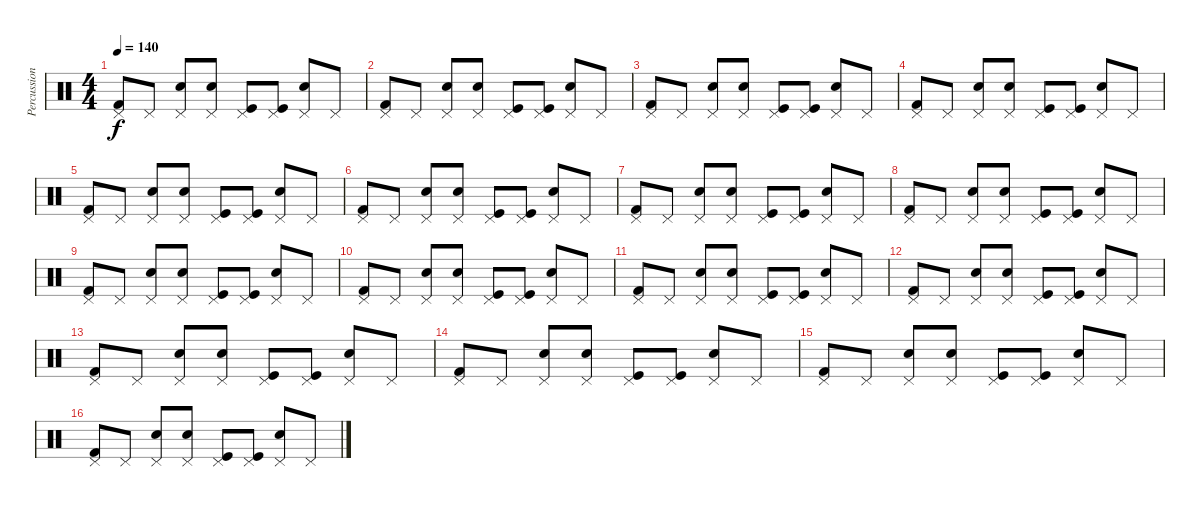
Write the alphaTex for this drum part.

\track ("Percussion" "Percussion") {instrument percussion}
\staff {score}
\articulation defaults
\ts (4 4)
\tempo 140
\clef neutral
\ks c
("Pedal Hi-Hat (hit)" "Kick (hit) 2").8{dy f} "Pedal Hi-Hat (hit)".8 ("Pedal Hi-Hat (hit)" "Snare (hit) 2").8 ("Pedal Hi-Hat (hit)" "Snare (hit) 2").8 ("Pedal Hi-Hat (hit)" "Kick (hit)").8 ("Pedal Hi-Hat (hit)" "Kick (hit)").8 ("Pedal Hi-Hat (hit)" "Snare (hit) 2").8 "Pedal Hi-Hat (hit)".8 |
("Pedal Hi-Hat (hit)" "Kick (hit) 2").8 "Pedal Hi-Hat (hit)".8 ("Pedal Hi-Hat (hit)" "Snare (hit) 2").8 ("Pedal Hi-Hat (hit)" "Snare (hit) 2").8 ("Pedal Hi-Hat (hit)" "Kick (hit)").8 ("Pedal Hi-Hat (hit)" "Kick (hit)").8 ("Pedal Hi-Hat (hit)" "Snare (hit) 2").8 "Pedal Hi-Hat (hit)".8 |
("Pedal Hi-Hat (hit)" "Kick (hit) 2").8 "Pedal Hi-Hat (hit)".8 ("Pedal Hi-Hat (hit)" "Snare (hit) 2").8 ("Pedal Hi-Hat (hit)" "Snare (hit) 2").8 ("Pedal Hi-Hat (hit)" "Kick (hit)").8 ("Pedal Hi-Hat (hit)" "Kick (hit)").8 ("Pedal Hi-Hat (hit)" "Snare (hit) 2").8 "Pedal Hi-Hat (hit)".8 |
("Pedal Hi-Hat (hit)" "Kick (hit) 2").8 "Pedal Hi-Hat (hit)".8 ("Pedal Hi-Hat (hit)" "Snare (hit) 2").8 ("Pedal Hi-Hat (hit)" "Snare (hit) 2").8 ("Pedal Hi-Hat (hit)" "Kick (hit)").8 ("Pedal Hi-Hat (hit)" "Kick (hit)").8 ("Pedal Hi-Hat (hit)" "Snare (hit) 2").8 "Pedal Hi-Hat (hit)".8 |
("Pedal Hi-Hat (hit)" "Kick (hit) 2").8 "Pedal Hi-Hat (hit)".8 ("Pedal Hi-Hat (hit)" "Snare (hit) 2").8 ("Pedal Hi-Hat (hit)" "Snare (hit) 2").8 ("Pedal Hi-Hat (hit)" "Kick (hit)").8 ("Pedal Hi-Hat (hit)" "Kick (hit)").8 ("Pedal Hi-Hat (hit)" "Snare (hit) 2").8 "Pedal Hi-Hat (hit)".8 |
("Pedal Hi-Hat (hit)" "Kick (hit) 2").8 "Pedal Hi-Hat (hit)".8 ("Pedal Hi-Hat (hit)" "Snare (hit) 2").8 ("Pedal Hi-Hat (hit)" "Snare (hit) 2").8 ("Pedal Hi-Hat (hit)" "Kick (hit)").8 ("Pedal Hi-Hat (hit)" "Kick (hit)").8 ("Pedal Hi-Hat (hit)" "Snare (hit) 2").8 "Pedal Hi-Hat (hit)".8 |
("Pedal Hi-Hat (hit)" "Kick (hit) 2").8 "Pedal Hi-Hat (hit)".8 ("Pedal Hi-Hat (hit)" "Snare (hit) 2").8 ("Pedal Hi-Hat (hit)" "Snare (hit) 2").8 ("Pedal Hi-Hat (hit)" "Kick (hit)").8 ("Pedal Hi-Hat (hit)" "Kick (hit)").8 ("Pedal Hi-Hat (hit)" "Snare (hit) 2").8 "Pedal Hi-Hat (hit)".8 |
("Pedal Hi-Hat (hit)" "Kick (hit) 2").8 "Pedal Hi-Hat (hit)".8 ("Pedal Hi-Hat (hit)" "Snare (hit) 2").8 ("Pedal Hi-Hat (hit)" "Snare (hit) 2").8 ("Pedal Hi-Hat (hit)" "Kick (hit)").8 ("Pedal Hi-Hat (hit)" "Kick (hit)").8 ("Pedal Hi-Hat (hit)" "Snare (hit) 2").8 "Pedal Hi-Hat (hit)".8 |
("Pedal Hi-Hat (hit)" "Kick (hit) 2").8 "Pedal Hi-Hat (hit)".8 ("Pedal Hi-Hat (hit)" "Snare (hit) 2").8 ("Pedal Hi-Hat (hit)" "Snare (hit) 2").8 ("Pedal Hi-Hat (hit)" "Kick (hit)").8 ("Pedal Hi-Hat (hit)" "Kick (hit)").8 ("Pedal Hi-Hat (hit)" "Snare (hit) 2").8 "Pedal Hi-Hat (hit)".8 |
("Pedal Hi-Hat (hit)" "Kick (hit) 2").8 "Pedal Hi-Hat (hit)".8 ("Pedal Hi-Hat (hit)" "Snare (hit) 2").8 ("Pedal Hi-Hat (hit)" "Snare (hit) 2").8 ("Pedal Hi-Hat (hit)" "Kick (hit)").8 ("Pedal Hi-Hat (hit)" "Kick (hit)").8 ("Pedal Hi-Hat (hit)" "Snare (hit) 2").8 "Pedal Hi-Hat (hit)".8 |
("Pedal Hi-Hat (hit)" "Kick (hit) 2").8 "Pedal Hi-Hat (hit)".8 ("Pedal Hi-Hat (hit)" "Snare (hit) 2").8 ("Pedal Hi-Hat (hit)" "Snare (hit) 2").8 ("Pedal Hi-Hat (hit)" "Kick (hit)").8 ("Pedal Hi-Hat (hit)" "Kick (hit)").8 ("Pedal Hi-Hat (hit)" "Snare (hit) 2").8 "Pedal Hi-Hat (hit)".8 |
("Pedal Hi-Hat (hit)" "Kick (hit) 2").8 "Pedal Hi-Hat (hit)".8 ("Pedal Hi-Hat (hit)" "Snare (hit) 2").8 ("Pedal Hi-Hat (hit)" "Snare (hit) 2").8 ("Pedal Hi-Hat (hit)" "Kick (hit)").8 ("Pedal Hi-Hat (hit)" "Kick (hit)").8 ("Pedal Hi-Hat (hit)" "Snare (hit) 2").8 "Pedal Hi-Hat (hit)".8 |
("Pedal Hi-Hat (hit)" "Kick (hit) 2").8 "Pedal Hi-Hat (hit)".8 ("Pedal Hi-Hat (hit)" "Snare (hit) 2").8 ("Pedal Hi-Hat (hit)" "Snare (hit) 2").8 ("Pedal Hi-Hat (hit)" "Kick (hit)").8 ("Pedal Hi-Hat (hit)" "Kick (hit)").8 ("Pedal Hi-Hat (hit)" "Snare (hit) 2").8 "Pedal Hi-Hat (hit)".8 |
("Pedal Hi-Hat (hit)" "Kick (hit) 2").8 "Pedal Hi-Hat (hit)".8 ("Pedal Hi-Hat (hit)" "Snare (hit) 2").8 ("Pedal Hi-Hat (hit)" "Snare (hit) 2").8 ("Pedal Hi-Hat (hit)" "Kick (hit)").8 ("Pedal Hi-Hat (hit)" "Kick (hit)").8 ("Pedal Hi-Hat (hit)" "Snare (hit) 2").8 "Pedal Hi-Hat (hit)".8 |
("Pedal Hi-Hat (hit)" "Kick (hit) 2").8 "Pedal Hi-Hat (hit)".8 ("Pedal Hi-Hat (hit)" "Snare (hit) 2").8 ("Pedal Hi-Hat (hit)" "Snare (hit) 2").8 ("Pedal Hi-Hat (hit)" "Kick (hit)").8 ("Pedal Hi-Hat (hit)" "Kick (hit)").8 ("Pedal Hi-Hat (hit)" "Snare (hit) 2").8 "Pedal Hi-Hat (hit)".8 |
("Pedal Hi-Hat (hit)" "Kick (hit) 2").8 "Pedal Hi-Hat (hit)".8 ("Pedal Hi-Hat (hit)" "Snare (hit) 2").8 ("Pedal Hi-Hat (hit)" "Snare (hit) 2").8 ("Pedal Hi-Hat (hit)" "Kick (hit)").8 ("Pedal Hi-Hat (hit)" "Kick (hit)").8 ("Pedal Hi-Hat (hit)" "Snare (hit) 2").8 "Pedal Hi-Hat (hit)".8
